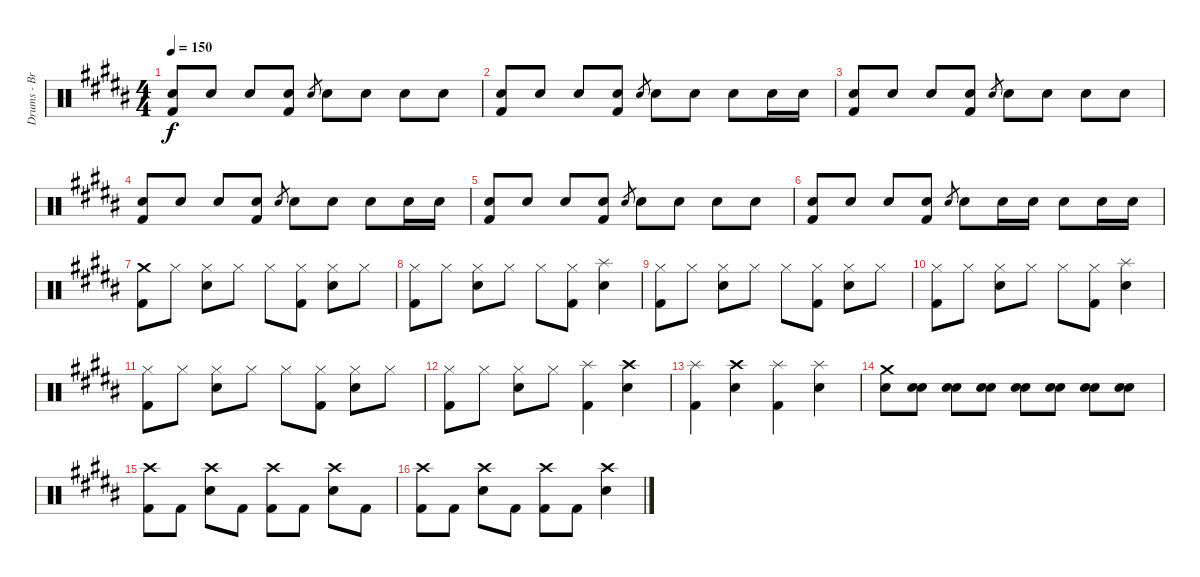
\track ("Drums - Brandon" "Drums - Br") {instrument percussion}
\staff {score}
\articulation defaults
\ts (4 4)
\tempo 150
\clef neutral
\ks b
("Kick (hit) 2" "Electric Snare (hit)").8{dy f} "Electric Snare (hit)".8 "Electric Snare (hit)".8 ("Kick (hit) 2" "Electric Snare (hit)").8 "Electric Snare (hit)".8{gr} "Electric Snare (hit)".8 "Electric Snare (hit)".8 "Electric Snare (hit)".8 "Electric Snare (hit)".8 |
("Kick (hit) 2" "Electric Snare (hit)").8 "Electric Snare (hit)".8 "Electric Snare (hit)".8 ("Kick (hit) 2" "Electric Snare (hit)").8 "Electric Snare (hit)".8{gr} "Electric Snare (hit)".8 "Electric Snare (hit)".8 "Electric Snare (hit)".8 "Electric Snare (hit)".16 "Electric Snare (hit)".16 |
("Kick (hit) 2" "Electric Snare (hit)").8 "Electric Snare (hit)".8 "Electric Snare (hit)".8 ("Kick (hit) 2" "Electric Snare (hit)").8 "Electric Snare (hit)".8{gr} "Electric Snare (hit)".8 "Electric Snare (hit)".8 "Electric Snare (hit)".8 "Electric Snare (hit)".8 |
("Kick (hit) 2" "Electric Snare (hit)").8 "Electric Snare (hit)".8 "Electric Snare (hit)".8 ("Kick (hit) 2" "Electric Snare (hit)").8 "Electric Snare (hit)".8{gr} "Electric Snare (hit)".8 "Electric Snare (hit)".8 "Electric Snare (hit)".8 "Electric Snare (hit)".16 "Electric Snare (hit)".16 |
("Kick (hit) 2" "Electric Snare (hit)").8 "Electric Snare (hit)".8 "Electric Snare (hit)".8 ("Kick (hit) 2" "Electric Snare (hit)").8 "Electric Snare (hit)".8{gr} "Electric Snare (hit)".8 "Electric Snare (hit)".8 "Electric Snare (hit)".8 "Electric Snare (hit)".8 |
("Kick (hit) 2" "Electric Snare (hit)").8 "Electric Snare (hit)".8 "Electric Snare (hit)".8 ("Kick (hit) 2" "Electric Snare (hit)").8 "Electric Snare (hit)".8{gr} "Electric Snare (hit)".8 "Electric Snare (hit)".16 "Electric Snare (hit)".16 "Electric Snare (hit)".8 "Electric Snare (hit)".16 "Electric Snare (hit)".16 |
("Crash medium (hit)" "Kick (hit) 2").8 "Hi-Hat (closed)".8 ("Hi-Hat (closed)" "Snare (hit) 2").8 "Hi-Hat (closed)".8 "Hi-Hat (closed)".8 ("Hi-Hat (closed)" "Kick (hit) 2").8 ("Hi-Hat (closed)" "Snare (hit) 2").8 "Hi-Hat (closed)".8 |
("Hi-Hat (closed)" "Kick (hit) 2").8 "Hi-Hat (closed)".8 ("Hi-Hat (closed)" "Snare (hit) 2").8 "Hi-Hat (closed)".8 "Hi-Hat (closed)".8 ("Hi-Hat (closed)" "Kick (hit) 2").8 ("Splash (hit)" "Snare (hit) 2").4 |
("Hi-Hat (closed)" "Kick (hit) 2").8 "Hi-Hat (closed)".8 ("Hi-Hat (closed)" "Snare (hit) 2").8 "Hi-Hat (closed)".8 "Hi-Hat (closed)".8 ("Hi-Hat (closed)" "Kick (hit) 2").8 ("Hi-Hat (closed)" "Snare (hit) 2").8 "Hi-Hat (closed)".8 |
("Hi-Hat (closed)" "Kick (hit) 2").8 "Hi-Hat (closed)".8 ("Hi-Hat (closed)" "Snare (hit) 2").8 "Hi-Hat (closed)".8 "Hi-Hat (closed)".8 ("Hi-Hat (closed)" "Kick (hit) 2").8 ("Splash (hit)" "Snare (hit) 2").4 |
("Hi-Hat (closed)" "Kick (hit) 2").8 "Hi-Hat (closed)".8 ("Hi-Hat (closed)" "Snare (hit) 2").8 "Hi-Hat (closed)".8 "Hi-Hat (closed)".8 ("Hi-Hat (closed)" "Kick (hit) 2").8 ("Hi-Hat (closed)" "Snare (hit) 2").8 "Hi-Hat (closed)".8 |
("Hi-Hat (closed)" "Kick (hit) 2").8 "Hi-Hat (closed)".8 ("Hi-Hat (closed)" "Snare (hit) 2").8 "Hi-Hat (closed)".8 ("Splash (hit)" "Kick (hit) 2").4 ("Crash high (hit)" "Snare (hit) 2").4 |
("Splash (hit)" "Kick (hit) 2").4 ("Crash high (hit)" "Snare (hit) 2").4 ("Splash (hit)" "Kick (hit) 2").4 ("Splash (hit)" "Snare (hit) 2").4 |
("Crash medium (hit)" "Snare (hit) 2").8 ("Snare (hit) 2" "Electric Snare (hit)").8 ("Snare (hit) 2" "Electric Snare (hit)").8 ("Snare (hit) 2" "Electric Snare (hit)").8 ("Snare (hit) 2" "Electric Snare (hit)").8 ("Snare (hit) 2" "Electric Snare (hit)").8 ("Snare (hit) 2" "Electric Snare (hit)").8 ("Snare (hit) 2" "Electric Snare (hit)").8 |
("Crash high (hit)" "Kick (hit) 2").8 "Kick (hit) 2".8 ("Crash high (hit)" "Snare (hit) 2").8 "Kick (hit) 2".8 ("Crash high (hit)" "Kick (hit) 2").8 "Kick (hit) 2".8 ("Crash high (hit)" "Snare (hit) 2").8 "Kick (hit) 2".8 |
("Crash high (hit)" "Kick (hit) 2").8 "Kick (hit) 2".8 ("Crash high (hit)" "Snare (hit) 2").8 "Kick (hit) 2".8 ("Crash high (hit)" "Kick (hit) 2").8 "Kick (hit) 2".8 ("Crash high (hit)" "Snare (hit) 2").4
